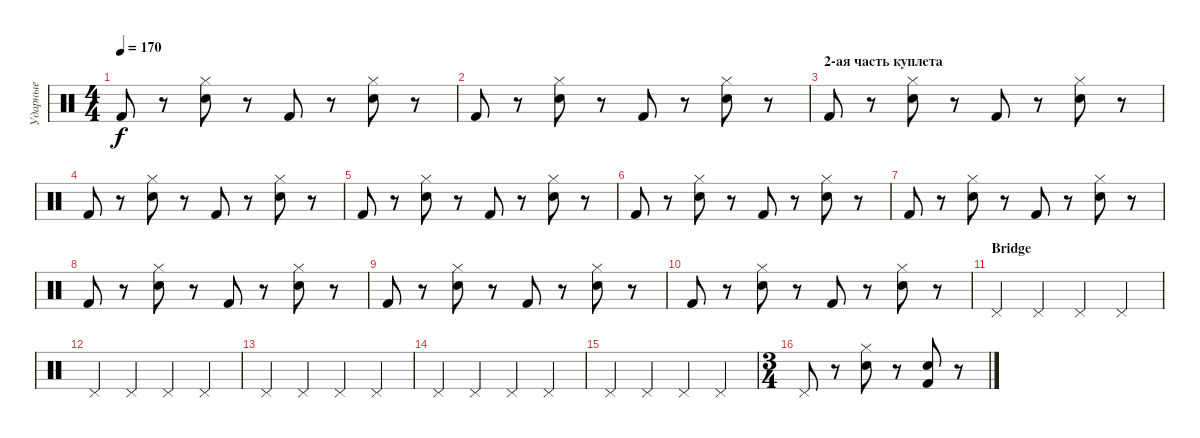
\track ("Ударные" "Ударные") {instrument percussion}
\staff {score}
\articulation defaults
\ts (4 4)
\tempo 170
\clef neutral
\ks c "Kick (hit) 2".8{dy f}
r.8 ("Hi-Hat (closed)" "Electric Snare (hit)").8 r.8 "Kick (hit) 2".8 r.8 ("Hi-Hat (closed)" "Electric Snare (hit)").8 r.8 |
"Kick (hit) 2".8 r.8 ("Hi-Hat (closed)" "Electric Snare (hit)").8 r.8 "Kick (hit) 2".8 r.8 ("Hi-Hat (closed)" "Electric Snare (hit)").8 r.8 |
\section ("" "2-ая часть куплета")
"Kick (hit) 2".8 r.8 ("Hi-Hat (closed)" "Electric Snare (hit)").8 r.8 "Kick (hit) 2".8 r.8 ("Hi-Hat (closed)" "Electric Snare (hit)").8 r.8 |
"Kick (hit) 2".8 r.8 ("Hi-Hat (closed)" "Electric Snare (hit)").8 r.8 "Kick (hit) 2".8 r.8 ("Hi-Hat (closed)" "Electric Snare (hit)").8 r.8 |
"Kick (hit) 2".8 r.8 ("Hi-Hat (closed)" "Electric Snare (hit)").8 r.8 "Kick (hit) 2".8 r.8 ("Hi-Hat (closed)" "Electric Snare (hit)").8 r.8 |
"Kick (hit) 2".8 r.8 ("Hi-Hat (closed)" "Electric Snare (hit)").8 r.8 "Kick (hit) 2".8 r.8 ("Hi-Hat (closed)" "Electric Snare (hit)").8 r.8 |
"Kick (hit) 2".8 r.8 ("Hi-Hat (closed)" "Electric Snare (hit)").8 r.8 "Kick (hit) 2".8 r.8 ("Hi-Hat (closed)" "Electric Snare (hit)").8 r.8 |
"Kick (hit) 2".8 r.8 ("Hi-Hat (closed)" "Electric Snare (hit)").8 r.8 "Kick (hit) 2".8 r.8 ("Hi-Hat (closed)" "Electric Snare (hit)").8 r.8 |
"Kick (hit) 2".8 r.8 ("Hi-Hat (closed)" "Electric Snare (hit)").8 r.8 "Kick (hit) 2".8 r.8 ("Hi-Hat (closed)" "Electric Snare (hit)").8 r.8 |
"Kick (hit) 2".8 r.8 ("Hi-Hat (closed)" "Electric Snare (hit)").8 r.8 "Kick (hit) 2".8 r.8 ("Hi-Hat (closed)" "Electric Snare (hit)").8 r.8 |
\section ("" "Bridge")
"Pedal Hi-Hat (hit)".4 "Pedal Hi-Hat (hit)".4 "Pedal Hi-Hat (hit)".4 "Pedal Hi-Hat (hit)".4 |
"Pedal Hi-Hat (hit)".4 "Pedal Hi-Hat (hit)".4 "Pedal Hi-Hat (hit)".4 "Pedal Hi-Hat (hit)".4 |
"Pedal Hi-Hat (hit)".4 "Pedal Hi-Hat (hit)".4 "Pedal Hi-Hat (hit)".4 "Pedal Hi-Hat (hit)".4 |
"Pedal Hi-Hat (hit)".4 "Pedal Hi-Hat (hit)".4 "Pedal Hi-Hat (hit)".4 "Pedal Hi-Hat (hit)".4 |
"Pedal Hi-Hat (hit)".4 "Pedal Hi-Hat (hit)".4 "Pedal Hi-Hat (hit)".4 "Pedal Hi-Hat (hit)".4 |
\ts (3 4)
"Pedal Hi-Hat (hit)".8 r.8 ("Electric Snare (hit)" "Hi-Hat (closed)").8 r.8 ("Snare (hit) 2" "Kick (hit) 2").8{bd 120} r.8
